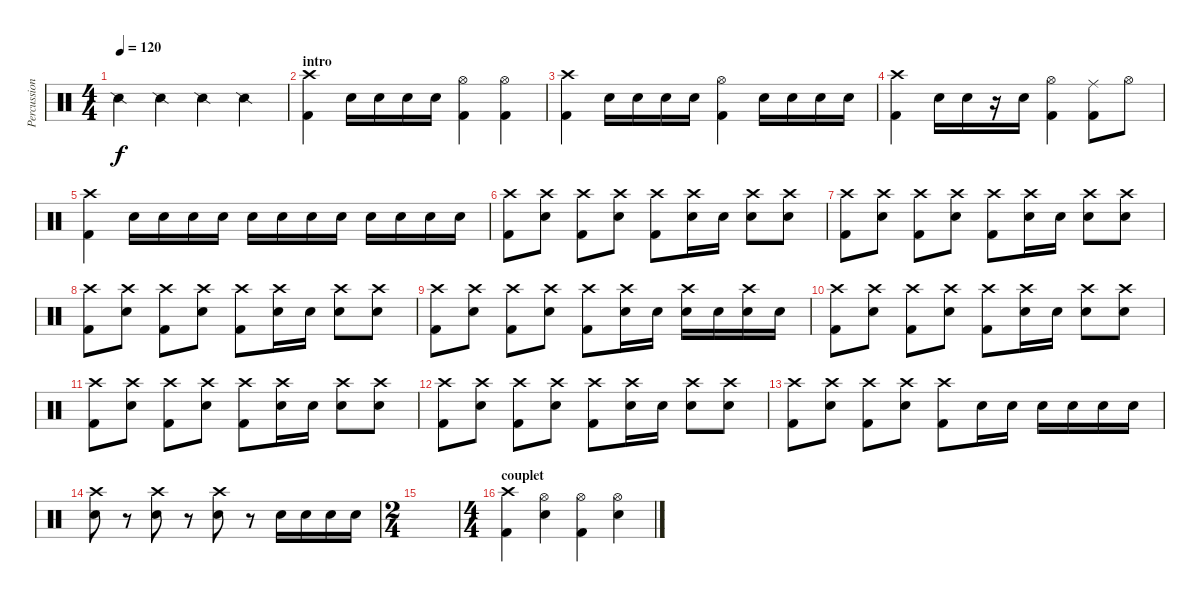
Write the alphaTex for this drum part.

\track ("Percussions" "Percussion") {instrument percussion}
\staff {score}
\articulation defaults
\ts (4 4)
\tempo 120
\clef neutral
\ks c "Snare (side stick) 2".4{dy f} "Snare (side stick) 2".4 "Snare (side stick) 2".4 "Snare (side stick) 2".4
|
\section ("" "intro")
("Crash high (hit)" "Kick (hit) 2").4 "Snare (hit) 2".16 "Snare (hit) 2".16 "Snare (hit) 2".16 "Snare (hit) 2".16 ("Hi-Hat (open)" "Kick (hit) 2").4 ("Hi-Hat (open)" "Kick (hit) 2").4 |
("Crash high (hit)" "Kick (hit) 2").4 "Snare (hit) 2".16 "Snare (hit) 2".16 "Snare (hit) 2".16 "Snare (hit) 2".16 ("Hi-Hat (open)" "Kick (hit) 2").4 "Snare (hit) 2".16 "Snare (hit) 2".16 "Snare (hit) 2".16 "Snare (hit) 2".16 |
("Crash high (hit)" "Kick (hit) 2").4 "Snare (hit) 2".16 "Snare (hit) 2".16 r.16 "Snare (hit) 2".16 ("Hi-Hat (open)" "Kick (hit) 2").4 ("Ride (middle)" "Kick (hit) 2").8 "Hi-Hat (open)".8 |
("Crash high (hit)" "Kick (hit) 2").4 "Snare (hit) 2".16 "Snare (hit) 2".16 "Snare (hit) 2".16 "Snare (hit) 2".16 "Snare (hit) 2".16 "Snare (hit) 2".16 "Snare (hit) 2".16 "Snare (hit) 2".16 "Snare (hit) 2".16 "Snare (hit) 2".16 "Snare (hit) 2".16 "Snare (hit) 2".16 |
("Crash high (hit)" "Kick (hit) 2").8 ("Crash high (hit)" "Snare (hit) 2").8 ("Crash high (hit)" "Kick (hit) 2").8 ("Crash high (hit)" "Snare (hit) 2").8 ("Crash high (hit)" "Kick (hit) 2").8 ("Crash high (hit)" "Snare (hit) 2").16 "Snare (hit) 2".16 ("Crash high (hit)" "Snare (hit) 2").8 ("Crash high (hit)" "Snare (hit) 2").8 |
("Crash high (hit)" "Kick (hit) 2").8 ("Crash high (hit)" "Snare (hit) 2").8 ("Crash high (hit)" "Kick (hit) 2").8 ("Crash high (hit)" "Snare (hit) 2").8 ("Crash high (hit)" "Kick (hit) 2").8 ("Crash high (hit)" "Snare (hit) 2").16 "Snare (hit) 2".16 ("Crash high (hit)" "Snare (hit) 2").8 ("Crash high (hit)" "Snare (hit) 2").8 |
("Crash high (hit)" "Kick (hit) 2").8 ("Crash high (hit)" "Snare (hit) 2").8 ("Crash high (hit)" "Kick (hit) 2").8 ("Crash high (hit)" "Snare (hit) 2").8 ("Crash high (hit)" "Kick (hit) 2").8 ("Crash high (hit)" "Snare (hit) 2").16 "Snare (hit) 2".16 ("Crash high (hit)" "Snare (hit) 2").8 ("Crash high (hit)" "Snare (hit) 2").8 |
("Crash high (hit)" "Kick (hit) 2").8 ("Crash high (hit)" "Snare (hit) 2").8 ("Crash high (hit)" "Kick (hit) 2").8 ("Crash high (hit)" "Snare (hit) 2").8 ("Crash high (hit)" "Kick (hit) 2").8 ("Crash high (hit)" "Snare (hit) 2").16 "Snare (hit) 2".16 ("Crash high (hit)" "Snare (hit) 2").16 "Snare (hit) 2".16 ("Crash high (hit)" "Snare (hit) 2").16 "Snare (hit) 2".16 |
("Crash high (hit)" "Kick (hit) 2").8 ("Crash high (hit)" "Snare (hit) 2").8 ("Crash high (hit)" "Kick (hit) 2").8 ("Crash high (hit)" "Snare (hit) 2").8 ("Crash high (hit)" "Kick (hit) 2").8 ("Crash high (hit)" "Snare (hit) 2").16 "Snare (hit) 2".16 ("Crash high (hit)" "Snare (hit) 2").8 ("Crash high (hit)" "Snare (hit) 2").8 |
("Crash high (hit)" "Kick (hit) 2").8 ("Crash high (hit)" "Snare (hit) 2").8 ("Crash high (hit)" "Kick (hit) 2").8 ("Crash high (hit)" "Snare (hit) 2").8 ("Crash high (hit)" "Kick (hit) 2").8 ("Crash high (hit)" "Snare (hit) 2").16 "Snare (hit) 2".16 ("Crash high (hit)" "Snare (hit) 2").8 ("Crash high (hit)" "Snare (hit) 2").8 |
("Crash high (hit)" "Kick (hit) 2").8 ("Crash high (hit)" "Snare (hit) 2").8 ("Crash high (hit)" "Kick (hit) 2").8 ("Crash high (hit)" "Snare (hit) 2").8 ("Crash high (hit)" "Kick (hit) 2").8 ("Crash high (hit)" "Snare (hit) 2").16 "Snare (hit) 2".16 ("Crash high (hit)" "Snare (hit) 2").8 ("Crash high (hit)" "Snare (hit) 2").8 |
("Crash high (hit)" "Kick (hit) 2").8 ("Crash high (hit)" "Snare (hit) 2").8 ("Crash high (hit)" "Kick (hit) 2").8 ("Crash high (hit)" "Snare (hit) 2").8 ("Crash high (hit)" "Kick (hit) 2").8 "Snare (hit) 2".16 "Snare (hit) 2".16 "Snare (hit) 2".16 "Snare (hit) 2".16 "Snare (hit) 2".16 "Snare (hit) 2".16 |
("Crash high (hit)" "Snare (hit) 2").8 r.8 ("Crash high (hit)" "Snare (hit) 2").8 r.8 ("Crash high (hit)" "Snare (hit) 2").8 r.8 "Snare (hit) 2".16 "Snare (hit) 2".16 "Snare (hit) 2".16 "Snare (hit) 2".16 |
\ts (2 4)
|
\ts (4 4)
\section ("" "couplet")
("Crash high (hit)" "Kick (hit) 2").4 ("Hi-Hat (open)" "Snare (hit) 2").4 ("Hi-Hat (open)" "Kick (hit) 2").4 ("Hi-Hat (open)" "Snare (hit) 2").4
